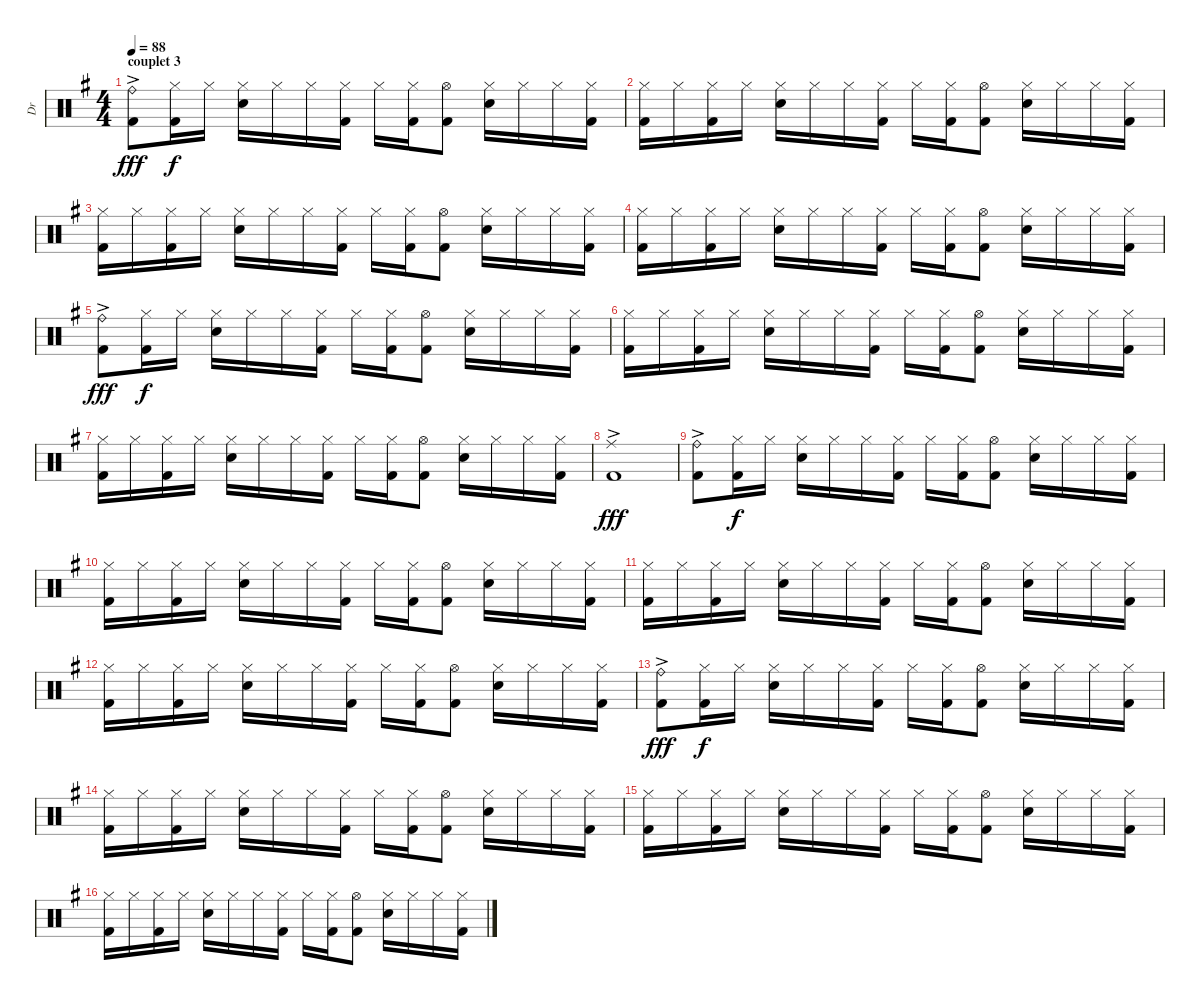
\track ("Dr" "Dr") {instrument percussion}
\staff {score}
\articulation defaults
\ts (4 4)
\section ("" "couplet 3")
\tempo 88
\clef neutral
\ks g
("Ride (bell)"{ac} "Kick (hit) 2"{ac}).8{dy fff} ("Hi-Hat (closed)" "Kick (hit) 2").16{dy f} "Hi-Hat (closed)".16 ("Hi-Hat (closed)" "Electric Snare (hit)").16 "Hi-Hat (closed)".16 "Hi-Hat (closed)".16 ("Hi-Hat (closed)" "Kick (hit) 2").16 "Hi-Hat (closed)".16 ("Hi-Hat (closed)" "Kick (hit) 2").16 ("Hi-Hat (open)" "Kick (hit) 2").8 ("Hi-Hat (closed)" "Electric Snare (hit)").16 "Hi-Hat (closed)".16 "Hi-Hat (closed)".16 ("Hi-Hat (closed)" "Kick (hit) 2").16 |
("Hi-Hat (closed)" "Kick (hit) 2").16 "Hi-Hat (closed)".16 ("Hi-Hat (closed)" "Kick (hit) 2").16 "Hi-Hat (closed)".16 ("Hi-Hat (closed)" "Electric Snare (hit)").16 "Hi-Hat (closed)".16 "Hi-Hat (closed)".16 ("Hi-Hat (closed)" "Kick (hit) 2").16 "Hi-Hat (closed)".16 ("Hi-Hat (closed)" "Kick (hit) 2").16 ("Hi-Hat (open)" "Kick (hit) 2").8 ("Hi-Hat (closed)" "Electric Snare (hit)").16 "Hi-Hat (closed)".16 "Hi-Hat (closed)".16 ("Hi-Hat (closed)" "Kick (hit) 2").16 |
("Hi-Hat (closed)" "Kick (hit) 2").16 "Hi-Hat (closed)".16 ("Hi-Hat (closed)" "Kick (hit) 2").16 "Hi-Hat (closed)".16 ("Hi-Hat (closed)" "Electric Snare (hit)").16 "Hi-Hat (closed)".16 "Hi-Hat (closed)".16 ("Hi-Hat (closed)" "Kick (hit) 2").16 "Hi-Hat (closed)".16 ("Hi-Hat (closed)" "Kick (hit) 2").16 ("Hi-Hat (open)" "Kick (hit) 2").8 ("Hi-Hat (closed)" "Electric Snare (hit)").16 "Hi-Hat (closed)".16 "Hi-Hat (closed)".16 ("Hi-Hat (closed)" "Kick (hit) 2").16 |
("Hi-Hat (closed)" "Kick (hit) 2").16 "Hi-Hat (closed)".16 ("Hi-Hat (closed)" "Kick (hit) 2").16 "Hi-Hat (closed)".16 ("Hi-Hat (closed)" "Electric Snare (hit)").16 "Hi-Hat (closed)".16 "Hi-Hat (closed)".16 ("Hi-Hat (closed)" "Kick (hit) 2").16 "Hi-Hat (closed)".16 ("Hi-Hat (closed)" "Kick (hit) 2").16 ("Hi-Hat (open)" "Kick (hit) 2").8 ("Hi-Hat (closed)" "Electric Snare (hit)").16 "Hi-Hat (closed)".16 "Hi-Hat (closed)".16 ("Hi-Hat (closed)" "Kick (hit) 2").16 |
("Ride (bell)"{ac} "Kick (hit) 2"{ac}).8{dy fff} ("Hi-Hat (closed)" "Kick (hit) 2").16{dy f} "Hi-Hat (closed)".16 ("Hi-Hat (closed)" "Electric Snare (hit)").16 "Hi-Hat (closed)".16 "Hi-Hat (closed)".16 ("Hi-Hat (closed)" "Kick (hit) 2").16 "Hi-Hat (closed)".16 ("Hi-Hat (closed)" "Kick (hit) 2").16 ("Hi-Hat (open)" "Kick (hit) 2").8 ("Hi-Hat (closed)" "Electric Snare (hit)").16 "Hi-Hat (closed)".16 "Hi-Hat (closed)".16 ("Hi-Hat (closed)" "Kick (hit) 2").16 |
("Hi-Hat (closed)" "Kick (hit) 2").16 "Hi-Hat (closed)".16 ("Hi-Hat (closed)" "Kick (hit) 2").16 "Hi-Hat (closed)".16 ("Hi-Hat (closed)" "Electric Snare (hit)").16 "Hi-Hat (closed)".16 "Hi-Hat (closed)".16 ("Hi-Hat (closed)" "Kick (hit) 2").16 "Hi-Hat (closed)".16 ("Hi-Hat (closed)" "Kick (hit) 2").16 ("Hi-Hat (open)" "Kick (hit) 2").8 ("Hi-Hat (closed)" "Electric Snare (hit)").16 "Hi-Hat (closed)".16 "Hi-Hat (closed)".16 ("Hi-Hat (closed)" "Kick (hit) 2").16 |
("Hi-Hat (closed)" "Kick (hit) 2").16 "Hi-Hat (closed)".16 ("Hi-Hat (closed)" "Kick (hit) 2").16 "Hi-Hat (closed)".16 ("Hi-Hat (closed)" "Electric Snare (hit)").16 "Hi-Hat (closed)".16 "Hi-Hat (closed)".16 ("Hi-Hat (closed)" "Kick (hit) 2").16 "Hi-Hat (closed)".16 ("Hi-Hat (closed)" "Kick (hit) 2").16 ("Hi-Hat (open)" "Kick (hit) 2").8 ("Hi-Hat (closed)" "Electric Snare (hit)").16 "Hi-Hat (closed)".16 "Hi-Hat (closed)".16 ("Hi-Hat (closed)" "Kick (hit) 2").16 |
("Ride (middle)"{ac} "Kick (hit) 2"{ac}).1{dy fff} |
("Ride (bell)"{ac} "Kick (hit) 2"{ac}).8 ("Hi-Hat (closed)" "Kick (hit) 2").16{dy f} "Hi-Hat (closed)".16 ("Hi-Hat (closed)" "Electric Snare (hit)").16 "Hi-Hat (closed)".16 "Hi-Hat (closed)".16 ("Hi-Hat (closed)" "Kick (hit) 2").16 "Hi-Hat (closed)".16 ("Hi-Hat (closed)" "Kick (hit) 2").16 ("Hi-Hat (open)" "Kick (hit) 2").8 ("Hi-Hat (closed)" "Electric Snare (hit)").16 "Hi-Hat (closed)".16 "Hi-Hat (closed)".16 ("Hi-Hat (closed)" "Kick (hit) 2").16 |
("Hi-Hat (closed)" "Kick (hit) 2").16 "Hi-Hat (closed)".16 ("Hi-Hat (closed)" "Kick (hit) 2").16 "Hi-Hat (closed)".16 ("Hi-Hat (closed)" "Electric Snare (hit)").16 "Hi-Hat (closed)".16 "Hi-Hat (closed)".16 ("Hi-Hat (closed)" "Kick (hit) 2").16 "Hi-Hat (closed)".16 ("Hi-Hat (closed)" "Kick (hit) 2").16 ("Hi-Hat (open)" "Kick (hit) 2").8 ("Hi-Hat (closed)" "Electric Snare (hit)").16 "Hi-Hat (closed)".16 "Hi-Hat (closed)".16 ("Hi-Hat (closed)" "Kick (hit) 2").16 |
("Hi-Hat (closed)" "Kick (hit) 2").16 "Hi-Hat (closed)".16 ("Hi-Hat (closed)" "Kick (hit) 2").16 "Hi-Hat (closed)".16 ("Hi-Hat (closed)" "Electric Snare (hit)").16 "Hi-Hat (closed)".16 "Hi-Hat (closed)".16 ("Hi-Hat (closed)" "Kick (hit) 2").16 "Hi-Hat (closed)".16 ("Hi-Hat (closed)" "Kick (hit) 2").16 ("Hi-Hat (open)" "Kick (hit) 2").8 ("Hi-Hat (closed)" "Electric Snare (hit)").16 "Hi-Hat (closed)".16 "Hi-Hat (closed)".16 ("Hi-Hat (closed)" "Kick (hit) 2").16 |
("Hi-Hat (closed)" "Kick (hit) 2").16 "Hi-Hat (closed)".16 ("Hi-Hat (closed)" "Kick (hit) 2").16 "Hi-Hat (closed)".16 ("Hi-Hat (closed)" "Electric Snare (hit)").16 "Hi-Hat (closed)".16 "Hi-Hat (closed)".16 ("Hi-Hat (closed)" "Kick (hit) 2").16 "Hi-Hat (closed)".16 ("Hi-Hat (closed)" "Kick (hit) 2").16 ("Hi-Hat (open)" "Kick (hit) 2").8 ("Hi-Hat (closed)" "Electric Snare (hit)").16 "Hi-Hat (closed)".16 "Hi-Hat (closed)".16 ("Hi-Hat (closed)" "Kick (hit) 2").16 |
("Ride (bell)"{ac} "Kick (hit) 2"{ac}).8{dy fff} ("Hi-Hat (closed)" "Kick (hit) 2").16{dy f} "Hi-Hat (closed)".16 ("Hi-Hat (closed)" "Electric Snare (hit)").16 "Hi-Hat (closed)".16 "Hi-Hat (closed)".16 ("Hi-Hat (closed)" "Kick (hit) 2").16 "Hi-Hat (closed)".16 ("Hi-Hat (closed)" "Kick (hit) 2").16 ("Hi-Hat (open)" "Kick (hit) 2").8 ("Hi-Hat (closed)" "Electric Snare (hit)").16 "Hi-Hat (closed)".16 "Hi-Hat (closed)".16 ("Hi-Hat (closed)" "Kick (hit) 2").16 |
("Hi-Hat (closed)" "Kick (hit) 2").16 "Hi-Hat (closed)".16 ("Hi-Hat (closed)" "Kick (hit) 2").16 "Hi-Hat (closed)".16 ("Hi-Hat (closed)" "Electric Snare (hit)").16 "Hi-Hat (closed)".16 "Hi-Hat (closed)".16 ("Hi-Hat (closed)" "Kick (hit) 2").16 "Hi-Hat (closed)".16 ("Hi-Hat (closed)" "Kick (hit) 2").16 ("Hi-Hat (open)" "Kick (hit) 2").8 ("Hi-Hat (closed)" "Electric Snare (hit)").16 "Hi-Hat (closed)".16 "Hi-Hat (closed)".16 ("Hi-Hat (closed)" "Kick (hit) 2").16 |
("Hi-Hat (closed)" "Kick (hit) 2").16 "Hi-Hat (closed)".16 ("Hi-Hat (closed)" "Kick (hit) 2").16 "Hi-Hat (closed)".16 ("Hi-Hat (closed)" "Electric Snare (hit)").16 "Hi-Hat (closed)".16 "Hi-Hat (closed)".16 ("Hi-Hat (closed)" "Kick (hit) 2").16 "Hi-Hat (closed)".16 ("Hi-Hat (closed)" "Kick (hit) 2").16 ("Hi-Hat (open)" "Kick (hit) 2").8 ("Hi-Hat (closed)" "Electric Snare (hit)").16 "Hi-Hat (closed)".16 "Hi-Hat (closed)".16 ("Hi-Hat (closed)" "Kick (hit) 2").16 |
("Hi-Hat (closed)" "Kick (hit) 2").16 "Hi-Hat (closed)".16 ("Hi-Hat (closed)" "Kick (hit) 2").16 "Hi-Hat (closed)".16 ("Hi-Hat (closed)" "Electric Snare (hit)").16 "Hi-Hat (closed)".16 "Hi-Hat (closed)".16 ("Hi-Hat (closed)" "Kick (hit) 2").16 "Hi-Hat (closed)".16 ("Hi-Hat (closed)" "Kick (hit) 2").16 ("Hi-Hat (open)" "Kick (hit) 2").8 ("Hi-Hat (closed)" "Electric Snare (hit)").16 "Hi-Hat (closed)".16 "Hi-Hat (closed)".16 ("Hi-Hat (closed)" "Kick (hit) 2").16
